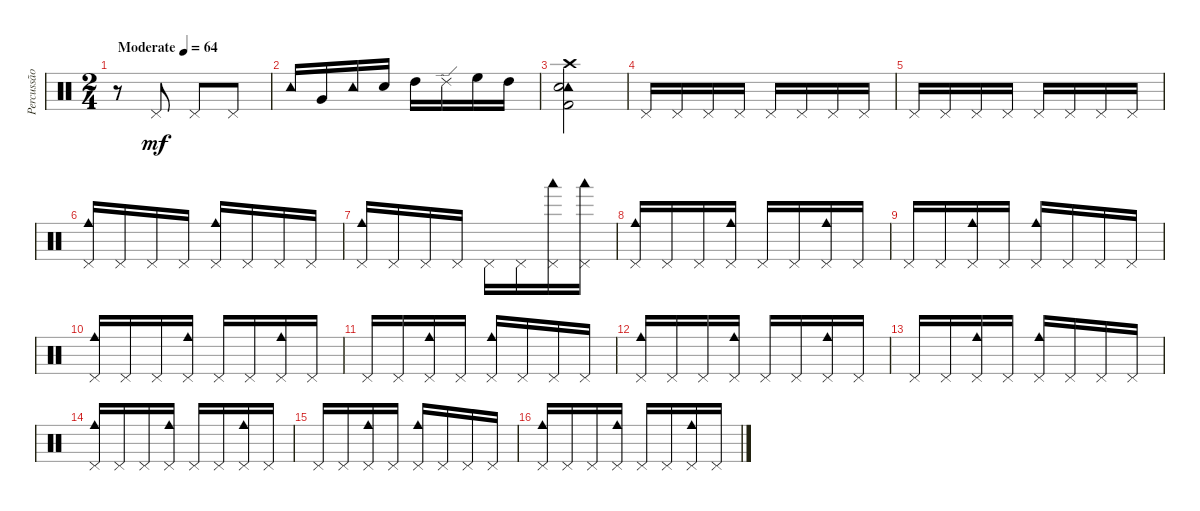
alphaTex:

\track ("Percussão" "Percussão") {instrument percussion}
\staff {score}
\articulation defaults
\ts (2 4)
\tempo (64 "Moderate")
\clef neutral
\ks c
r.8{dy mf} "Pedal Hi-Hat (hit)".8 "Pedal Hi-Hat (hit)".8 "Pedal Hi-Hat (hit)".8 |
"Tambourine (hit)".16 "Very Low Tom (hit)".16 "Tambourine (hit)".16 "Snare (hit) 2".16 "High Tom (hit)".16 "Ride (edge) 2".16 "High Floor Tom (hit)".16 "High Tom (hit)".16 |
("Kick (hit) 2" "Tambourine (hit)" "Crash high (hit)" "Snare (hit) 2").2 |
"Pedal Hi-Hat (hit)".16 "Pedal Hi-Hat (hit)".16 "Pedal Hi-Hat (hit)".16 "Pedal Hi-Hat (hit)".16 "Pedal Hi-Hat (hit)".16 "Pedal Hi-Hat (hit)".16 "Pedal Hi-Hat (hit)".16 "Pedal Hi-Hat (hit)".16 |
"Pedal Hi-Hat (hit)".16 "Pedal Hi-Hat (hit)".16 "Pedal Hi-Hat (hit)".16 "Pedal Hi-Hat (hit)".16 "Pedal Hi-Hat (hit)".16 "Pedal Hi-Hat (hit)".16 "Pedal Hi-Hat (hit)".16 "Pedal Hi-Hat (hit)".16 |
("Pedal Hi-Hat (hit)" "Cowbell medium (hit)").16 "Pedal Hi-Hat (hit)".16 "Pedal Hi-Hat (hit)".16 "Pedal Hi-Hat (hit)".16 ("Pedal Hi-Hat (hit)" "Cowbell medium (hit)").16 "Pedal Hi-Hat (hit)".16 "Pedal Hi-Hat (hit)".16 "Pedal Hi-Hat (hit)".16 |
("Pedal Hi-Hat (hit)" "Cowbell medium (hit)").16 "Pedal Hi-Hat (hit)".16 "Pedal Hi-Hat (hit)".16 "Pedal Hi-Hat (hit)".16 "Pedal Hi-Hat (hit)".16 "Pedal Hi-Hat (hit)".16 ("Woodblock low (hit)" "Pedal Hi-Hat (hit)").16 ("Pedal Hi-Hat (hit)" "Woodblock low (hit)").16 |
("Pedal Hi-Hat (hit)" "Cowbell medium (hit)").16 "Pedal Hi-Hat (hit)".16 "Pedal Hi-Hat (hit)".16 ("Pedal Hi-Hat (hit)" "Cowbell medium (hit)").16 "Pedal Hi-Hat (hit)".16 "Pedal Hi-Hat (hit)".16 ("Pedal Hi-Hat (hit)" "Cowbell medium (hit)").16 "Pedal Hi-Hat (hit)".16 |
"Pedal Hi-Hat (hit)".16 "Pedal Hi-Hat (hit)".16 ("Pedal Hi-Hat (hit)" "Cowbell medium (hit)").16 "Pedal Hi-Hat (hit)".16 ("Pedal Hi-Hat (hit)" "Cowbell medium (hit)").16 "Pedal Hi-Hat (hit)".16 "Pedal Hi-Hat (hit)".16 "Pedal Hi-Hat (hit)".16 |
("Pedal Hi-Hat (hit)" "Cowbell medium (hit)").16 "Pedal Hi-Hat (hit)".16 "Pedal Hi-Hat (hit)".16 ("Pedal Hi-Hat (hit)" "Cowbell medium (hit)").16 "Pedal Hi-Hat (hit)".16 "Pedal Hi-Hat (hit)".16 ("Pedal Hi-Hat (hit)" "Cowbell medium (hit)").16 "Pedal Hi-Hat (hit)".16 |
"Pedal Hi-Hat (hit)".16 "Pedal Hi-Hat (hit)".16 ("Pedal Hi-Hat (hit)" "Cowbell medium (hit)").16 "Pedal Hi-Hat (hit)".16 ("Pedal Hi-Hat (hit)" "Cowbell medium (hit)").16 "Pedal Hi-Hat (hit)".16 "Pedal Hi-Hat (hit)".16 "Pedal Hi-Hat (hit)".16 |
("Pedal Hi-Hat (hit)" "Cowbell medium (hit)").16 "Pedal Hi-Hat (hit)".16 "Pedal Hi-Hat (hit)".16 ("Pedal Hi-Hat (hit)" "Cowbell medium (hit)").16 "Pedal Hi-Hat (hit)".16 "Pedal Hi-Hat (hit)".16 ("Pedal Hi-Hat (hit)" "Cowbell medium (hit)").16 "Pedal Hi-Hat (hit)".16 |
"Pedal Hi-Hat (hit)".16 "Pedal Hi-Hat (hit)".16 ("Pedal Hi-Hat (hit)" "Cowbell medium (hit)").16 "Pedal Hi-Hat (hit)".16 ("Pedal Hi-Hat (hit)" "Cowbell medium (hit)").16 "Pedal Hi-Hat (hit)".16 "Pedal Hi-Hat (hit)".16 "Pedal Hi-Hat (hit)".16 |
("Pedal Hi-Hat (hit)" "Cowbell medium (hit)").16 "Pedal Hi-Hat (hit)".16 "Pedal Hi-Hat (hit)".16 ("Pedal Hi-Hat (hit)" "Cowbell medium (hit)").16 "Pedal Hi-Hat (hit)".16 "Pedal Hi-Hat (hit)".16 ("Pedal Hi-Hat (hit)" "Cowbell medium (hit)").16 "Pedal Hi-Hat (hit)".16 |
"Pedal Hi-Hat (hit)".16 "Pedal Hi-Hat (hit)".16 ("Pedal Hi-Hat (hit)" "Cowbell medium (hit)").16 "Pedal Hi-Hat (hit)".16 ("Pedal Hi-Hat (hit)" "Cowbell medium (hit)").16 "Pedal Hi-Hat (hit)".16 "Pedal Hi-Hat (hit)".16 "Pedal Hi-Hat (hit)".16 |
("Pedal Hi-Hat (hit)" "Cowbell medium (hit)").16 "Pedal Hi-Hat (hit)".16 "Pedal Hi-Hat (hit)".16 ("Pedal Hi-Hat (hit)" "Cowbell medium (hit)").16 "Pedal Hi-Hat (hit)".16 "Pedal Hi-Hat (hit)".16 ("Pedal Hi-Hat (hit)" "Cowbell medium (hit)").16 "Pedal Hi-Hat (hit)".16
